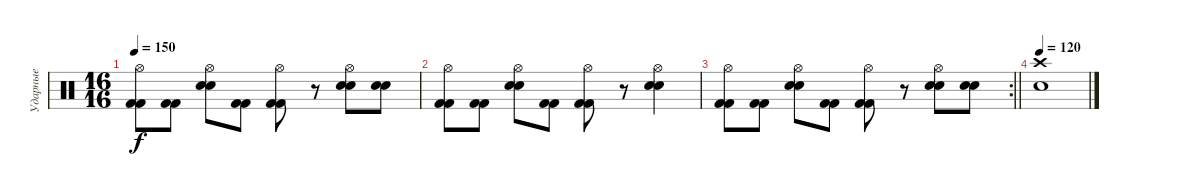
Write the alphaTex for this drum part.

\track ("Ударные" "Ударные") {instrument percussion}
\staff {score}
\articulation defaults
\ts (16 16)
\tempo 150
\clef neutral
\ks c
("Kick (hit) 2" "Kick (hit) 2" "Hi-Hat (open)").8{dy f} ("Kick (hit) 2" "Kick (hit) 2").8 ("Electric Snare (hit)" "Electric Snare (hit)" "Hi-Hat (open)").8 ("Kick (hit) 2" "Kick (hit) 2").8 ("Kick (hit) 2" "Kick (hit) 2" "Hi-Hat (open)").8 r.8 ("Electric Snare (hit)" "Electric Snare (hit)" "Hi-Hat (open)").8 ("Electric Snare (hit)" "Electric Snare (hit)").8 |
("Kick (hit) 2" "Kick (hit) 2" "Hi-Hat (open)").8 ("Kick (hit) 2" "Kick (hit) 2").8 ("Electric Snare (hit)" "Electric Snare (hit)" "Hi-Hat (open)").8 ("Kick (hit) 2" "Kick (hit) 2").8 ("Kick (hit) 2" "Kick (hit) 2" "Hi-Hat (open)").8 r.8 ("Electric Snare (hit)" "Electric Snare (hit)" "Hi-Hat (open)").4 |
\rc 2
\barLineRight lightlight
("Kick (hit) 2" "Kick (hit) 2" "Hi-Hat (open)").8 ("Kick (hit) 2" "Kick (hit) 2").8 ("Electric Snare (hit)" "Electric Snare (hit)" "Hi-Hat (open)").8 ("Kick (hit) 2" "Kick (hit) 2").8 ("Kick (hit) 2" "Kick (hit) 2" "Hi-Hat (open)").8 r.8 ("Electric Snare (hit)" "Electric Snare (hit)" "Hi-Hat (open)").8 ("Electric Snare (hit)" "Electric Snare (hit)").8 |
\tempo 120
("Crash high (hit)" "Snare (hit) 2").1
